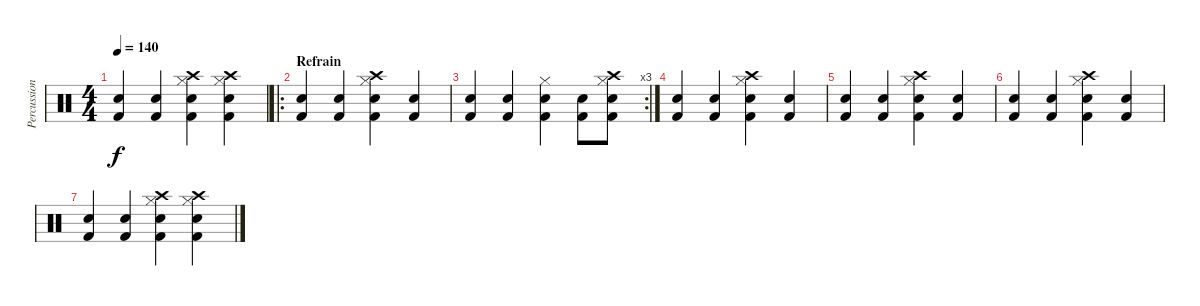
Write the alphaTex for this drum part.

\track ("Percussions" "Percussion") {instrument percussion}
\staff {score}
\articulation defaults
\ts (4 4)
\tempo 140
\clef neutral
\ks c
("Snare (hit) 2" "Kick (hit) 2").4{dy f} ("Snare (hit) 2" "Kick (hit) 2").4 ("Snare (hit) 2" "Kick (hit) 2" "Hi-Hat (closed)" "Crash high (hit)").4 ("Snare (hit) 2" "Kick (hit) 2" "Hi-Hat (closed)" "Crash high (hit)").4 |
\ro
\section ("" "Refrain")
("Snare (hit) 2" "Kick (hit) 2").4 ("Snare (hit) 2" "Kick (hit) 2").4 ("Snare (hit) 2" "Kick (hit) 2" "Hi-Hat (closed)" "Crash high (hit)").4 ("Snare (hit) 2" "Kick (hit) 2").4 |
\rc 3
("Snare (hit) 2" "Kick (hit) 2").4 ("Snare (hit) 2" "Kick (hit) 2").4 ("Snare (hit) 2" "Kick (hit) 2" "Hi-Hat (closed)").4 ("Snare (hit) 2" "Kick (hit) 2").8 ("Snare (hit) 2" "Kick (hit) 2" "Hi-Hat (closed)" "Crash high (hit)").8 |
("Snare (hit) 2" "Kick (hit) 2").4 ("Snare (hit) 2" "Kick (hit) 2").4 ("Snare (hit) 2" "Kick (hit) 2" "Hi-Hat (closed)" "Crash high (hit)").4 ("Snare (hit) 2" "Kick (hit) 2").4 |
("Snare (hit) 2" "Kick (hit) 2").4 ("Snare (hit) 2" "Kick (hit) 2").4 ("Snare (hit) 2" "Kick (hit) 2" "Hi-Hat (closed)" "Crash high (hit)").4 ("Snare (hit) 2" "Kick (hit) 2").4 |
("Snare (hit) 2" "Kick (hit) 2").4 ("Snare (hit) 2" "Kick (hit) 2").4 ("Snare (hit) 2" "Kick (hit) 2" "Hi-Hat (closed)" "Crash high (hit)").4 ("Snare (hit) 2" "Kick (hit) 2").4 |
("Snare (hit) 2" "Kick (hit) 2").4 ("Snare (hit) 2" "Kick (hit) 2").4 ("Snare (hit) 2" "Kick (hit) 2" "Hi-Hat (closed)" "Crash high (hit)").4 ("Snare (hit) 2" "Kick (hit) 2" "Hi-Hat (closed)" "Crash high (hit)").4
